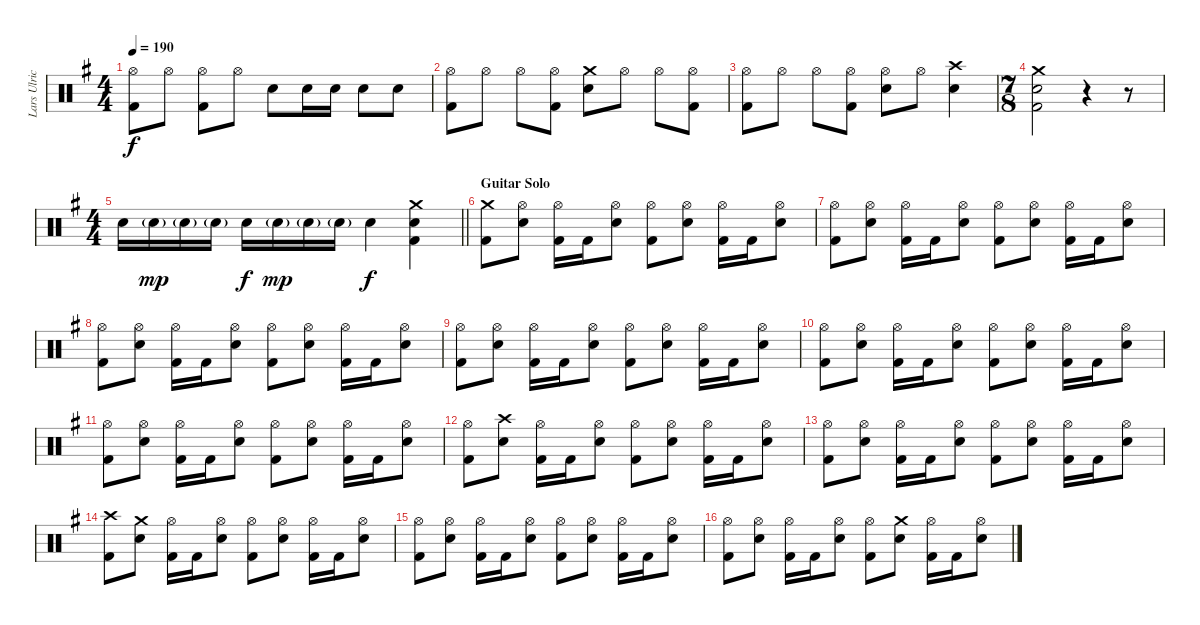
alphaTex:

\track ("Lars Ulrich - Drums" "Lars Ulric") {instrument percussion}
\staff {score}
\articulation defaults
\ts (4 4)
\tempo 190
\clef neutral
\ks eminor
("Hi-Hat (open)" "Kick (hit) 2").8{dy f} "Hi-Hat (open)".8 ("Hi-Hat (open)" "Kick (hit) 2").8 "Hi-Hat (open)".8 "Snare (hit) 2".8 "Snare (hit) 2".16 "Snare (hit) 2".16 "Snare (hit) 2".8 "Snare (hit) 2".8 |
("Hi-Hat (open)" "Kick (hit) 2").8 "Hi-Hat (open)".8 "Hi-Hat (open)".8 ("Hi-Hat (open)" "Kick (hit) 2").8 ("Crash medium (hit)" "Snare (hit) 2").8 "Hi-Hat (open)".8 "Hi-Hat (open)".8 ("Hi-Hat (open)" "Kick (hit) 2").8 |
("Hi-Hat (open)" "Kick (hit) 2").8 "Hi-Hat (open)".8 "Hi-Hat (open)".8 ("Hi-Hat (open)" "Kick (hit) 2").8 ("Hi-Hat (open)" "Snare (hit) 2").8 "Hi-Hat (open)".8 ("Crash high (hit)" "Snare (hit) 2").4 |
\ts (7 8)
("Crash medium (hit)" "Snare (hit) 2" "Kick (hit) 2").2 r.4 r.8 |
\ts (4 4)
\barLineRight lightlight "Snare (hit) 2".16 "Snare (hit) 2"{g}.16{dy mp} "Snare (hit) 2"{g}.16 "Snare (hit) 2"{g}.16 "Snare (hit) 2".16{dy f} "Snare (hit) 2"{g}.16{dy mp} "Snare (hit) 2"{g}.16 "Snare (hit) 2"{g}.16 "Snare (hit) 2".4{dy f}
("Crash medium (hit)" "Snare (hit) 2" "Kick (hit) 2").4 |
\section ("" "Guitar Solo")
("Crash medium (hit)" "Kick (hit) 2").8 ("Hi-Hat (open)" "Snare (hit) 2").8 ("Hi-Hat (open)" "Kick (hit) 2").16 "Kick (hit) 2".16 ("Hi-Hat (open)" "Snare (hit) 2").8 ("Hi-Hat (open)" "Kick (hit) 2").8 ("Hi-Hat (open)" "Snare (hit) 2").8 ("Hi-Hat (open)" "Kick (hit) 2").16 "Kick (hit) 2".16 ("Hi-Hat (open)" "Snare (hit) 2").8 |
("Hi-Hat (open)" "Kick (hit) 2").8 ("Hi-Hat (open)" "Snare (hit) 2").8 ("Hi-Hat (open)" "Kick (hit) 2").16 "Kick (hit) 2".16 ("Hi-Hat (open)" "Snare (hit) 2").8 ("Hi-Hat (open)" "Kick (hit) 2").8 ("Hi-Hat (open)" "Snare (hit) 2").8 ("Hi-Hat (open)" "Kick (hit) 2").16 "Kick (hit) 2".16 ("Hi-Hat (open)" "Snare (hit) 2").8 |
("Hi-Hat (open)" "Kick (hit) 2").8 ("Hi-Hat (open)" "Snare (hit) 2").8 ("Hi-Hat (open)" "Kick (hit) 2").16 "Kick (hit) 2".16 ("Hi-Hat (open)" "Snare (hit) 2").8 ("Hi-Hat (open)" "Kick (hit) 2").8 ("Hi-Hat (open)" "Snare (hit) 2").8 ("Hi-Hat (open)" "Kick (hit) 2").16 "Kick (hit) 2".16 ("Hi-Hat (open)" "Snare (hit) 2").8 |
("Hi-Hat (open)" "Kick (hit) 2").8 ("Hi-Hat (open)" "Snare (hit) 2").8 ("Hi-Hat (open)" "Kick (hit) 2").16 "Kick (hit) 2".16 ("Hi-Hat (open)" "Snare (hit) 2").8 ("Hi-Hat (open)" "Kick (hit) 2").8 ("Hi-Hat (open)" "Snare (hit) 2").8 ("Hi-Hat (open)" "Kick (hit) 2").16 "Kick (hit) 2".16 ("Hi-Hat (open)" "Snare (hit) 2").8 |
("Hi-Hat (open)" "Kick (hit) 2").8 ("Hi-Hat (open)" "Snare (hit) 2").8 ("Hi-Hat (open)" "Kick (hit) 2").16 "Kick (hit) 2".16 ("Hi-Hat (open)" "Snare (hit) 2").8 ("Hi-Hat (open)" "Kick (hit) 2").8 ("Hi-Hat (open)" "Snare (hit) 2").8 ("Hi-Hat (open)" "Kick (hit) 2").16 "Kick (hit) 2".16 ("Hi-Hat (open)" "Snare (hit) 2").8 |
("Hi-Hat (open)" "Kick (hit) 2").8 ("Hi-Hat (open)" "Snare (hit) 2").8 ("Hi-Hat (open)" "Kick (hit) 2").16 "Kick (hit) 2".16 ("Hi-Hat (open)" "Snare (hit) 2").8 ("Hi-Hat (open)" "Kick (hit) 2").8 ("Hi-Hat (open)" "Snare (hit) 2").8 ("Hi-Hat (open)" "Kick (hit) 2").16 "Kick (hit) 2".16 ("Hi-Hat (open)" "Snare (hit) 2").8 |
("Hi-Hat (open)" "Kick (hit) 2").8 ("Crash high (hit)" "Snare (hit) 2").8 ("Hi-Hat (open)" "Kick (hit) 2").16 "Kick (hit) 2".16 ("Hi-Hat (open)" "Snare (hit) 2").8 ("Hi-Hat (open)" "Kick (hit) 2").8 ("Hi-Hat (open)" "Snare (hit) 2").8 ("Hi-Hat (open)" "Kick (hit) 2").16 "Kick (hit) 2".16 ("Hi-Hat (open)" "Snare (hit) 2").8 |
("Hi-Hat (open)" "Kick (hit) 2").8 ("Hi-Hat (open)" "Snare (hit) 2").8 ("Hi-Hat (open)" "Kick (hit) 2").16 "Kick (hit) 2".16 ("Hi-Hat (open)" "Snare (hit) 2").8 ("Hi-Hat (open)" "Kick (hit) 2").8 ("Hi-Hat (open)" "Snare (hit) 2").8 ("Hi-Hat (open)" "Kick (hit) 2").16 "Kick (hit) 2".16 ("Hi-Hat (open)" "Snare (hit) 2").8 |
("Crash high (hit)" "Kick (hit) 2").8 ("Crash medium (hit)" "Snare (hit) 2").8 ("Hi-Hat (open)" "Kick (hit) 2").16 "Kick (hit) 2".16 ("Hi-Hat (open)" "Snare (hit) 2").8 ("Hi-Hat (open)" "Kick (hit) 2").8 ("Hi-Hat (open)" "Snare (hit) 2").8 ("Hi-Hat (open)" "Kick (hit) 2").16 "Kick (hit) 2".16 ("Hi-Hat (open)" "Snare (hit) 2").8 |
("Hi-Hat (open)" "Kick (hit) 2").8 ("Hi-Hat (open)" "Snare (hit) 2").8 ("Hi-Hat (open)" "Kick (hit) 2").16 "Kick (hit) 2".16 ("Hi-Hat (open)" "Snare (hit) 2").8 ("Hi-Hat (open)" "Kick (hit) 2").8 ("Hi-Hat (open)" "Snare (hit) 2").8 ("Hi-Hat (open)" "Kick (hit) 2").16 "Kick (hit) 2".16 ("Hi-Hat (open)" "Snare (hit) 2").8 |
("Hi-Hat (open)" "Kick (hit) 2").8 ("Hi-Hat (open)" "Snare (hit) 2").8 ("Hi-Hat (open)" "Kick (hit) 2").16 "Kick (hit) 2".16 ("Hi-Hat (open)" "Snare (hit) 2").8 ("Hi-Hat (open)" "Kick (hit) 2").8 ("Crash medium (hit)" "Snare (hit) 2").8 ("Hi-Hat (open)" "Kick (hit) 2").16 "Kick (hit) 2".16 ("Hi-Hat (open)" "Snare (hit) 2").8
